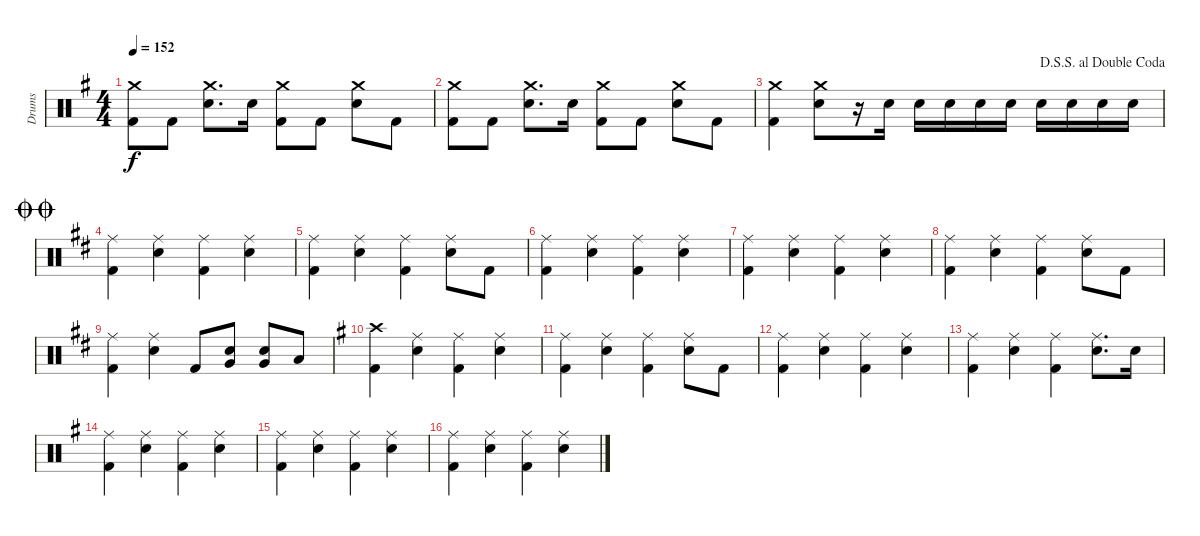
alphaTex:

\track ("Drums" "Drums") {instrument percussion}
\staff {score}
\articulation defaults
\ts (4 4)
\tempo 152
\clef neutral
\ks g
("Crash medium (hit)" "Kick (hit) 2").8{dy f} "Kick (hit) 2".8 ("Crash medium (hit)" "Snare (hit) 2").8{d} "Snare (hit) 2".16 ("Crash medium (hit)" "Kick (hit) 2").8 "Kick (hit) 2".8 ("Crash medium (hit)" "Snare (hit) 2").8 "Kick (hit) 2".8 |
("Crash medium (hit)" "Kick (hit) 2").8 "Kick (hit) 2".8 ("Crash medium (hit)" "Snare (hit) 2").8{d} "Snare (hit) 2".16 ("Crash medium (hit)" "Kick (hit) 2").8 "Kick (hit) 2".8 ("Crash medium (hit)" "Snare (hit) 2").8 "Kick (hit) 2".8 |
\jump dalsegnosegnoaldoublecoda
("Crash medium (hit)" "Kick (hit) 2").4 ("Crash medium (hit)" "Snare (hit) 2").8 r.16 "Snare (hit) 2".16 "Snare (hit) 2".16 "Snare (hit) 2".16 "Snare (hit) 2".16 "Snare (hit) 2".16 "Snare (hit) 2".16 "Snare (hit) 2".16 "Snare (hit) 2".16 "Snare (hit) 2".16 |
\jump doublecoda
\ks d
("Ride (middle)" "Kick (hit) 2").4 ("Ride (middle)" "Snare (hit) 2").4 ("Ride (middle)" "Kick (hit) 2").4 ("Ride (middle)" "Snare (hit) 2").4 |
("Ride (middle)" "Kick (hit) 2").4 ("Ride (middle)" "Snare (hit) 2").4 ("Ride (middle)" "Kick (hit) 2").4 ("Ride (middle)" "Snare (hit) 2").8 "Kick (hit) 2".8 |
("Ride (middle)" "Kick (hit) 2").4 ("Ride (middle)" "Snare (hit) 2").4 ("Ride (middle)" "Kick (hit) 2").4 ("Ride (middle)" "Snare (hit) 2").4 |
("Ride (middle)" "Kick (hit) 2").4 ("Ride (middle)" "Snare (hit) 2").4 ("Ride (middle)" "Kick (hit) 2").4 ("Ride (middle)" "Snare (hit) 2").4 |
("Ride (middle)" "Kick (hit) 2").4 ("Ride (middle)" "Snare (hit) 2").4 ("Ride (middle)" "Kick (hit) 2").4 ("Ride (middle)" "Snare (hit) 2").8 "Kick (hit) 2".8 |
("Ride (middle)" "Kick (hit) 2").4 ("Ride (middle)" "Snare (hit) 2").4 "Kick (hit) 2".8 ("Snare (hit) 2" "Very Low Tom (hit)").8 ("Snare (hit) 2" "Very Low Tom (hit)").8 "Low Floor Tom (hit)".8 |
\ks g
("Crash high (hit)" "Kick (hit) 2").4 ("Ride (middle)" "Snare (hit) 2").4 ("Ride (middle)" "Kick (hit) 2").4 ("Ride (middle)" "Snare (hit) 2").4 |
("Ride (middle)" "Kick (hit) 2").4 ("Ride (middle)" "Snare (hit) 2").4 ("Ride (middle)" "Kick (hit) 2").4 ("Ride (middle)" "Snare (hit) 2").8 "Kick (hit) 2".8 |
("Ride (middle)" "Kick (hit) 2").4 ("Ride (middle)" "Snare (hit) 2").4 ("Ride (middle)" "Kick (hit) 2").4 ("Ride (middle)" "Snare (hit) 2").4 |
("Ride (middle)" "Kick (hit) 2").4 ("Ride (middle)" "Snare (hit) 2").4 ("Ride (middle)" "Kick (hit) 2").4 ("Ride (middle)" "Snare (hit) 2").8{d} "Snare (hit) 2".16 |
("Ride (middle)" "Kick (hit) 2").4 ("Ride (middle)" "Snare (hit) 2").4 ("Ride (middle)" "Kick (hit) 2").4 ("Ride (middle)" "Snare (hit) 2").4 |
("Ride (middle)" "Kick (hit) 2").4 ("Ride (middle)" "Snare (hit) 2").4 ("Ride (middle)" "Kick (hit) 2").4 ("Ride (middle)" "Snare (hit) 2").4 |
("Ride (middle)" "Kick (hit) 2").4 ("Ride (middle)" "Snare (hit) 2").4 ("Ride (middle)" "Kick (hit) 2").4 ("Ride (middle)" "Snare (hit) 2").4
